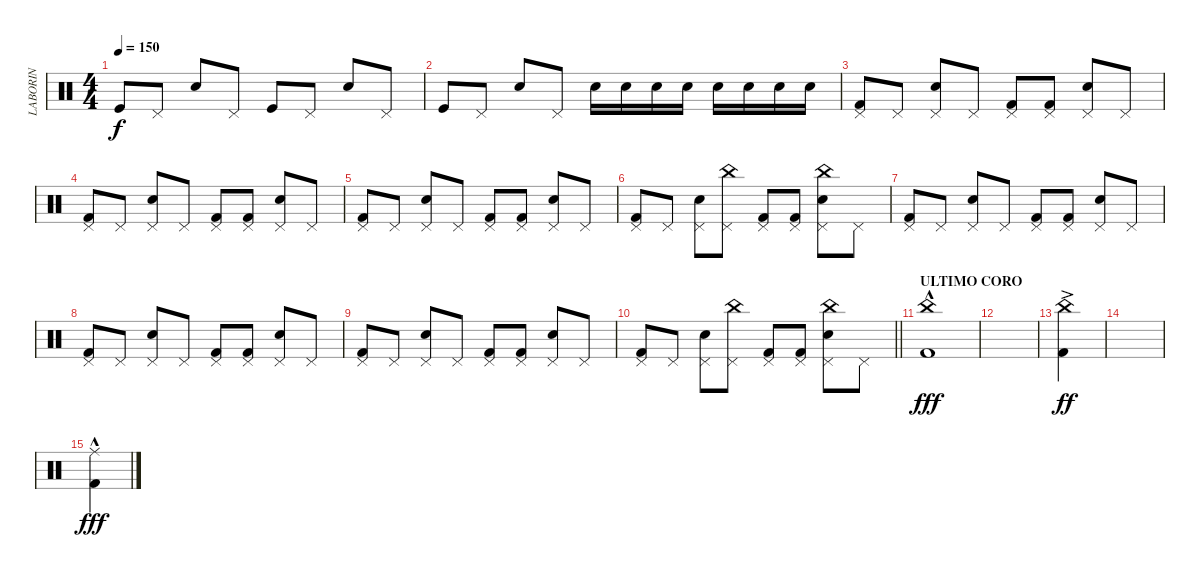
\track ("LABORIN" "LABORIN") {instrument percussion}
\staff {score}
\articulation defaults
\ts (4 4)
\tempo 150
\clef neutral
\ks c "Kick (hit)".8{dy f} "Pedal Hi-Hat (hit)".8 "Snare (hit) 2".8 "Pedal Hi-Hat (hit)".8 "Kick (hit)".8 "Pedal Hi-Hat (hit)".8 "Snare (hit) 2".8 "Pedal Hi-Hat (hit)".8
|
"Kick (hit)".8 "Pedal Hi-Hat (hit)".8 "Snare (hit) 2".8 "Pedal Hi-Hat (hit)".8 "Snare (hit) 2".16 "Snare (hit) 2".16 "Snare (hit) 2".16 "Snare (hit) 2".16 "Snare (hit) 2".16 "Snare (hit) 2".16 "Snare (hit) 2".16 "Snare (hit) 2".16 |
("Kick (hit) 2" "Pedal Hi-Hat (hit)").8 "Pedal Hi-Hat (hit)".8 ("Snare (hit) 2" "Pedal Hi-Hat (hit)").8 "Pedal Hi-Hat (hit)".8 ("Kick (hit) 2" "Pedal Hi-Hat (hit)").8 ("Kick (hit) 2" "Pedal Hi-Hat (hit)").8 ("Snare (hit) 2" "Pedal Hi-Hat (hit)").8 "Pedal Hi-Hat (hit)".8 |
("Kick (hit) 2" "Pedal Hi-Hat (hit)").8 "Pedal Hi-Hat (hit)".8 ("Snare (hit) 2" "Pedal Hi-Hat (hit)").8 "Pedal Hi-Hat (hit)".8 ("Kick (hit) 2" "Pedal Hi-Hat (hit)").8 ("Kick (hit) 2" "Pedal Hi-Hat (hit)").8 ("Snare (hit) 2" "Pedal Hi-Hat (hit)").8 "Pedal Hi-Hat (hit)".8 |
("Kick (hit) 2" "Pedal Hi-Hat (hit)").8 "Pedal Hi-Hat (hit)".8 ("Snare (hit) 2" "Pedal Hi-Hat (hit)").8 "Pedal Hi-Hat (hit)".8 ("Kick (hit) 2" "Pedal Hi-Hat (hit)").8 ("Kick (hit) 2" "Pedal Hi-Hat (hit)").8 ("Snare (hit) 2" "Pedal Hi-Hat (hit)").8 "Pedal Hi-Hat (hit)".8 |
("Kick (hit) 2" "Pedal Hi-Hat (hit)").8 "Pedal Hi-Hat (hit)".8 ("Snare (hit) 2" "Pedal Hi-Hat (hit)").8 ("China (hit)" "Pedal Hi-Hat (hit)").8 ("Kick (hit) 2" "Pedal Hi-Hat (hit)").8 ("Kick (hit) 2" "Pedal Hi-Hat (hit)").8 ("China (hit)" "Snare (hit) 2" "Pedal Hi-Hat (hit)").8 "Pedal Hi-Hat (hit)".8 |
("Kick (hit) 2" "Pedal Hi-Hat (hit)").8 "Pedal Hi-Hat (hit)".8 ("Snare (hit) 2" "Pedal Hi-Hat (hit)").8 "Pedal Hi-Hat (hit)".8 ("Kick (hit) 2" "Pedal Hi-Hat (hit)").8 ("Kick (hit) 2" "Pedal Hi-Hat (hit)").8 ("Snare (hit) 2" "Pedal Hi-Hat (hit)").8 "Pedal Hi-Hat (hit)".8 |
("Kick (hit) 2" "Pedal Hi-Hat (hit)").8 "Pedal Hi-Hat (hit)".8 ("Snare (hit) 2" "Pedal Hi-Hat (hit)").8 "Pedal Hi-Hat (hit)".8 ("Kick (hit) 2" "Pedal Hi-Hat (hit)").8 ("Kick (hit) 2" "Pedal Hi-Hat (hit)").8 ("Snare (hit) 2" "Pedal Hi-Hat (hit)").8 "Pedal Hi-Hat (hit)".8 |
("Kick (hit) 2" "Pedal Hi-Hat (hit)").8 "Pedal Hi-Hat (hit)".8 ("Snare (hit) 2" "Pedal Hi-Hat (hit)").8 "Pedal Hi-Hat (hit)".8 ("Kick (hit) 2" "Pedal Hi-Hat (hit)").8 ("Kick (hit) 2" "Pedal Hi-Hat (hit)").8 ("Snare (hit) 2" "Pedal Hi-Hat (hit)").8 "Pedal Hi-Hat (hit)".8 |
\barLineRight lightlight
("Kick (hit) 2" "Pedal Hi-Hat (hit)").8 "Pedal Hi-Hat (hit)".8 ("Snare (hit) 2" "Pedal Hi-Hat (hit)").8 ("China (hit)" "Pedal Hi-Hat (hit)").8 ("Kick (hit) 2" "Pedal Hi-Hat (hit)").8 ("Kick (hit) 2" "Pedal Hi-Hat (hit)").8 ("China (hit)" "Snare (hit) 2" "Pedal Hi-Hat (hit)").8 "Pedal Hi-Hat (hit)".8 |
\section ("" "ULTIMO CORO")
("Kick (hit) 2"{hac} "China (hit)").1{dy fff} |
|
("Kick (hit) 2"{ac} "China (hit)").4{dy ff} |
|
("Kick (hit) 2"{hac} "Ride (middle)").4{dy fff}
